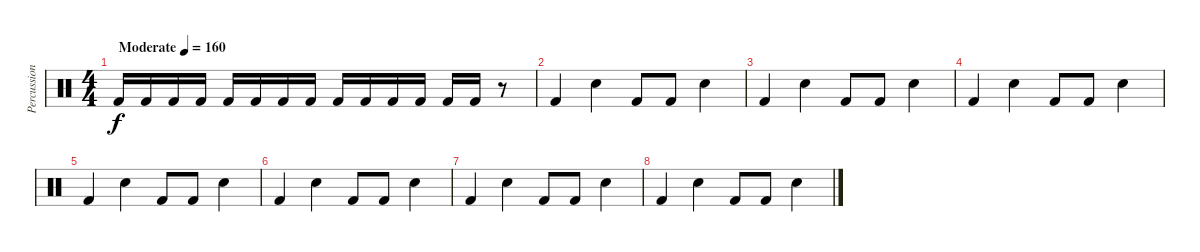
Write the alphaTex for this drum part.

\track ("Percussion" "Percussion") {instrument percussion}
\staff {score}
\articulation defaults
\ts (4 4)
\tempo (160 "Moderate")
\clef neutral
\ks c "Kick (hit) 2".16{dy f} "Kick (hit) 2".16 "Kick (hit) 2".16 "Kick (hit) 2".16 "Kick (hit) 2".16 "Kick (hit) 2".16 "Kick (hit) 2".16 "Kick (hit) 2".16 "Kick (hit) 2".16 "Kick (hit) 2".16 "Kick (hit) 2".16 "Kick (hit) 2".16 "Kick (hit) 2".16 "Kick (hit) 2".16
r.8 |
"Kick (hit) 2".4 "Electric Snare (hit)".4 "Kick (hit) 2".8 "Kick (hit) 2".8 "Electric Snare (hit)".4 |
"Kick (hit) 2".4 "Electric Snare (hit)".4 "Kick (hit) 2".8 "Kick (hit) 2".8 "Electric Snare (hit)".4 |
"Kick (hit) 2".4 "Electric Snare (hit)".4 "Kick (hit) 2".8 "Kick (hit) 2".8 "Electric Snare (hit)".4 |
"Kick (hit) 2".4 "Electric Snare (hit)".4 "Kick (hit) 2".8 "Kick (hit) 2".8 "Electric Snare (hit)".4 |
"Kick (hit) 2".4 "Electric Snare (hit)".4 "Kick (hit) 2".8 "Kick (hit) 2".8 "Electric Snare (hit)".4 |
"Kick (hit) 2".4 "Electric Snare (hit)".4 "Kick (hit) 2".8 "Kick (hit) 2".8 "Electric Snare (hit)".4 |
"Kick (hit) 2".4 "Electric Snare (hit)".4 "Kick (hit) 2".8 "Kick (hit) 2".8 "Electric Snare (hit)".4
